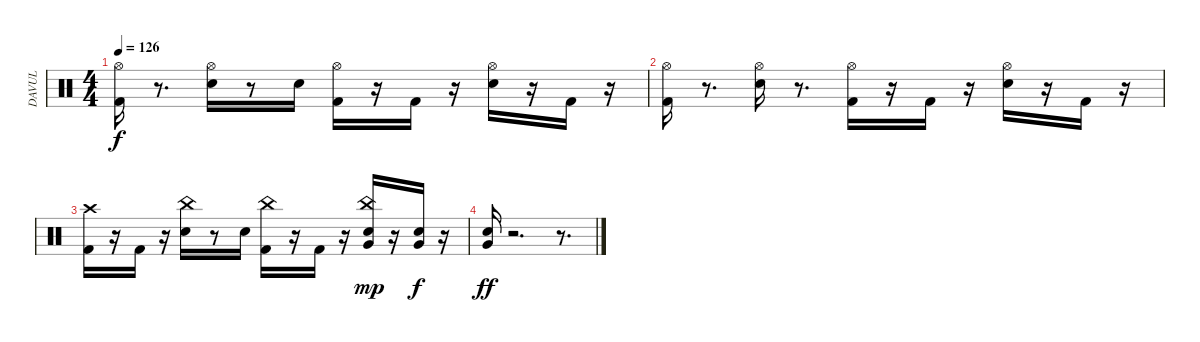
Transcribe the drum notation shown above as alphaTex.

\track ("DAVUL" "DAVUL") {instrument percussion}
\staff {score}
\articulation defaults
\ts (4 4)
\tempo 126
\clef neutral
\ks c
("Kick (hit) 2" "Hi-Hat (open)").16{dy f} r.8{d} ("Electric Snare (hit)" "Hi-Hat (open)").16 r.8 "Electric Snare (hit)".16 ("Kick (hit) 2" "Hi-Hat (open)").16 r.16 "Kick (hit) 2".16 r.16 ("Electric Snare (hit)" "Hi-Hat (open)").16 r.16 "Kick (hit) 2".16 r.16 |
("Kick (hit) 2" "Hi-Hat (open)").16 r.8{d} ("Hi-Hat (open)" "Electric Snare (hit)").16 r.8{d} ("Hi-Hat (open)" "Kick (hit) 2").16 r.16 "Kick (hit) 2".16 r.16 ("Hi-Hat (open)" "Electric Snare (hit)").16 r.16 "Kick (hit) 2".16 r.16 |
("Kick (hit) 2" "Crash high (hit)").16 r.16 "Kick (hit) 2".16 r.16 ("China (hit)" "Electric Snare (hit)").16 r.8 "Electric Snare (hit)".16 ("China (hit)" "Kick (hit) 2").16 r.16 "Kick (hit) 2".16 r.16 ("China (hit)" "Electric Snare (hit)" "Very Low Tom (hit)").16{dy mp} r.16 ("Electric Snare (hit)" "Very Low Tom (hit)").16{dy f} r.16 |
("Electric Snare (hit)" "Very Low Tom (hit)").16{dy ff} r.2{d} r.8{d}
